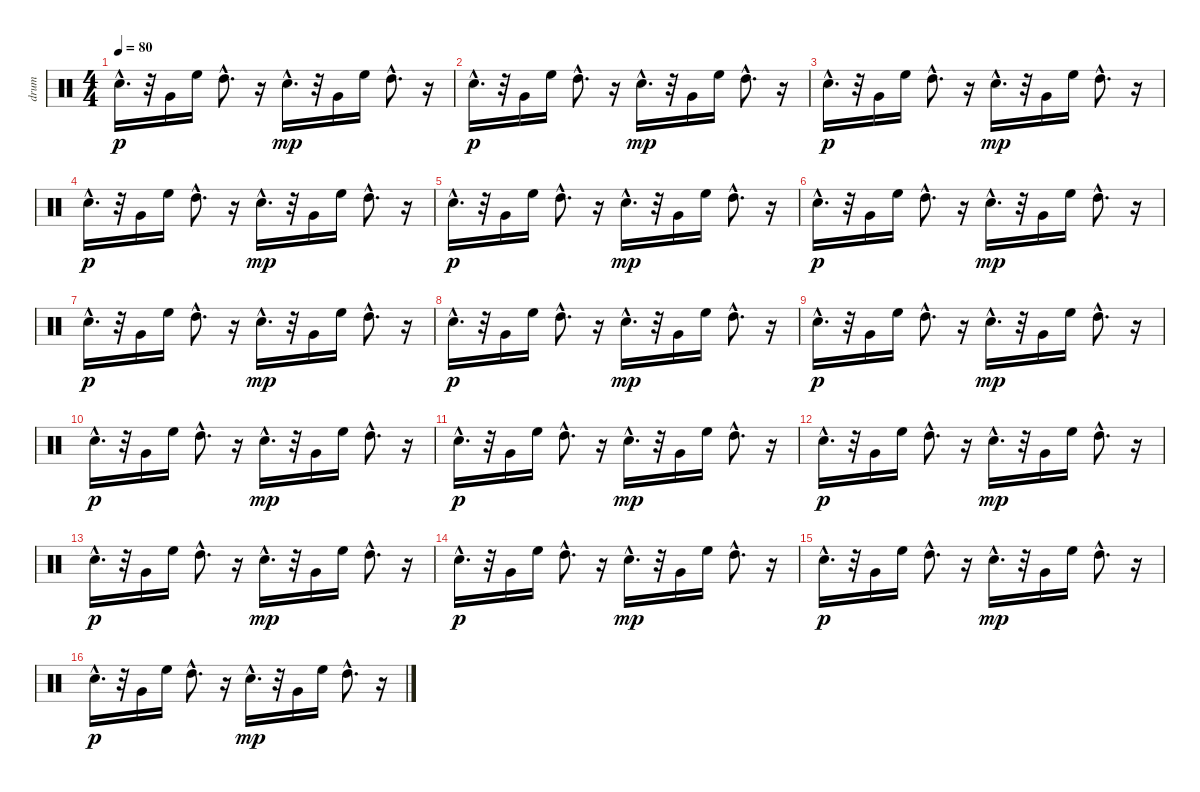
\track ("drum" "drum") {instrument percussion}
\staff {score}
\articulation defaults
\ts (4 4)
\tempo 80
\clef neutral
\ks c "Electric Snare (hit)"{hac}.16{d dy p}
r.32 "Very Low Tom (hit)".16 "High Floor Tom (hit)".16 "High Tom (hit)"{hac}.8{d} r.16 "Electric Snare (hit)"{hac}.16{d dy mp} r.32 "Very Low Tom (hit)".16 "High Floor Tom (hit)".16 "High Tom (hit)"{hac}.8{d} r.16 |
"Electric Snare (hit)"{hac}.16{d dy p} r.32 "Very Low Tom (hit)".16 "High Floor Tom (hit)".16 "High Tom (hit)"{hac}.8{d} r.16 "Electric Snare (hit)"{hac}.16{d dy mp} r.32 "Very Low Tom (hit)".16 "High Floor Tom (hit)".16 "High Tom (hit)"{hac}.8{d} r.16 |
"Electric Snare (hit)"{hac}.16{d dy p} r.32 "Very Low Tom (hit)".16 "High Floor Tom (hit)".16 "High Tom (hit)"{hac}.8{d} r.16 "Electric Snare (hit)"{hac}.16{d dy mp} r.32 "Very Low Tom (hit)".16 "High Floor Tom (hit)".16 "High Tom (hit)"{hac}.8{d} r.16 |
"Electric Snare (hit)"{hac}.16{d dy p} r.32 "Very Low Tom (hit)".16 "High Floor Tom (hit)".16 "High Tom (hit)"{hac}.8{d} r.16 "Electric Snare (hit)"{hac}.16{d dy mp} r.32 "Very Low Tom (hit)".16 "High Floor Tom (hit)".16 "High Tom (hit)"{hac}.8{d} r.16 |
"Electric Snare (hit)"{hac}.16{d dy p} r.32 "Very Low Tom (hit)".16 "High Floor Tom (hit)".16 "High Tom (hit)"{hac}.8{d} r.16 "Electric Snare (hit)"{hac}.16{d dy mp} r.32 "Very Low Tom (hit)".16 "High Floor Tom (hit)".16 "High Tom (hit)"{hac}.8{d} r.16 |
"Electric Snare (hit)"{hac}.16{d dy p} r.32 "Very Low Tom (hit)".16 "High Floor Tom (hit)".16 "High Tom (hit)"{hac}.8{d} r.16 "Electric Snare (hit)"{hac}.16{d dy mp} r.32 "Very Low Tom (hit)".16 "High Floor Tom (hit)".16 "High Tom (hit)"{hac}.8{d} r.16 |
"Electric Snare (hit)"{hac}.16{d dy p} r.32 "Very Low Tom (hit)".16 "High Floor Tom (hit)".16 "High Tom (hit)"{hac}.8{d} r.16 "Electric Snare (hit)"{hac}.16{d dy mp} r.32 "Very Low Tom (hit)".16 "High Floor Tom (hit)".16 "High Tom (hit)"{hac}.8{d} r.16 |
"Electric Snare (hit)"{hac}.16{d dy p} r.32 "Very Low Tom (hit)".16 "High Floor Tom (hit)".16 "High Tom (hit)"{hac}.8{d} r.16 "Electric Snare (hit)"{hac}.16{d dy mp} r.32 "Very Low Tom (hit)".16 "High Floor Tom (hit)".16 "High Tom (hit)"{hac}.8{d} r.16 |
"Electric Snare (hit)"{hac}.16{d dy p} r.32 "Very Low Tom (hit)".16 "High Floor Tom (hit)".16 "High Tom (hit)"{hac}.8{d} r.16 "Electric Snare (hit)"{hac}.16{d dy mp} r.32 "Very Low Tom (hit)".16 "High Floor Tom (hit)".16 "High Tom (hit)"{hac}.8{d} r.16 |
"Electric Snare (hit)"{hac}.16{d dy p} r.32 "Very Low Tom (hit)".16 "High Floor Tom (hit)".16 "High Tom (hit)"{hac}.8{d} r.16 "Electric Snare (hit)"{hac}.16{d dy mp} r.32 "Very Low Tom (hit)".16 "High Floor Tom (hit)".16 "High Tom (hit)"{hac}.8{d} r.16 |
"Electric Snare (hit)"{hac}.16{d dy p} r.32 "Very Low Tom (hit)".16 "High Floor Tom (hit)".16 "High Tom (hit)"{hac}.8{d} r.16 "Electric Snare (hit)"{hac}.16{d dy mp} r.32 "Very Low Tom (hit)".16 "High Floor Tom (hit)".16 "High Tom (hit)"{hac}.8{d} r.16 |
"Electric Snare (hit)"{hac}.16{d dy p} r.32 "Very Low Tom (hit)".16 "High Floor Tom (hit)".16 "High Tom (hit)"{hac}.8{d} r.16 "Electric Snare (hit)"{hac}.16{d dy mp} r.32 "Very Low Tom (hit)".16 "High Floor Tom (hit)".16 "High Tom (hit)"{hac}.8{d} r.16 |
"Electric Snare (hit)"{hac}.16{d dy p} r.32 "Very Low Tom (hit)".16 "High Floor Tom (hit)".16 "High Tom (hit)"{hac}.8{d} r.16 "Electric Snare (hit)"{hac}.16{d dy mp} r.32 "Very Low Tom (hit)".16 "High Floor Tom (hit)".16 "High Tom (hit)"{hac}.8{d} r.16 |
"Electric Snare (hit)"{hac}.16{d dy p} r.32 "Very Low Tom (hit)".16 "High Floor Tom (hit)".16 "High Tom (hit)"{hac}.8{d} r.16 "Electric Snare (hit)"{hac}.16{d dy mp} r.32 "Very Low Tom (hit)".16 "High Floor Tom (hit)".16 "High Tom (hit)"{hac}.8{d} r.16 |
"Electric Snare (hit)"{hac}.16{d dy p} r.32 "Very Low Tom (hit)".16 "High Floor Tom (hit)".16 "High Tom (hit)"{hac}.8{d} r.16 "Electric Snare (hit)"{hac}.16{d dy mp} r.32 "Very Low Tom (hit)".16 "High Floor Tom (hit)".16 "High Tom (hit)"{hac}.8{d} r.16 |
"Electric Snare (hit)"{hac}.16{d dy p} r.32 "Very Low Tom (hit)".16 "High Floor Tom (hit)".16 "High Tom (hit)"{hac}.8{d} r.16 "Electric Snare (hit)"{hac}.16{d dy mp} r.32 "Very Low Tom (hit)".16 "High Floor Tom (hit)".16 "High Tom (hit)"{hac}.8{d} r.16
